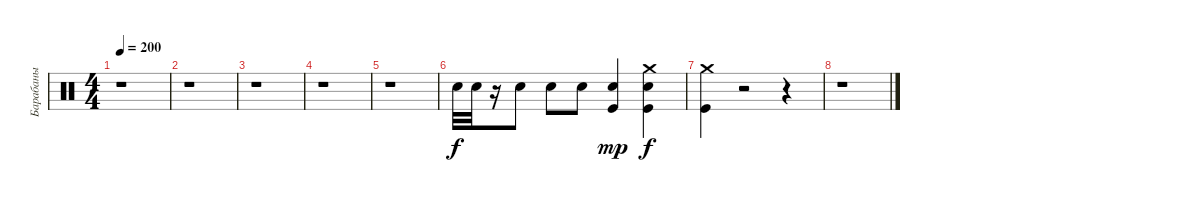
\track ("Барабаны" "Барабаны") {instrument percussion}
\staff {score}
\articulation defaults
\ts (4 4)
\tempo 200
\clef neutral
\ks c
r.1{dy f} |
r.1 |
r.1 |
r.1 |
r.1 |
"Electric Snare (hit)".32{volume 11 balance 8} "Electric Snare (hit)".32 r.16 "Electric Snare (hit)".8 "Electric Snare (hit)".8 "Electric Snare (hit)".8 ("Kick (hit)" "Electric Snare (hit)").4{dy mp} ("Kick (hit)" "Crash medium (hit)" "Electric Snare (hit)").4{dy f} |
("Kick (hit)" "Crash medium (hit)").4 r.2 r.4 |
r.1
